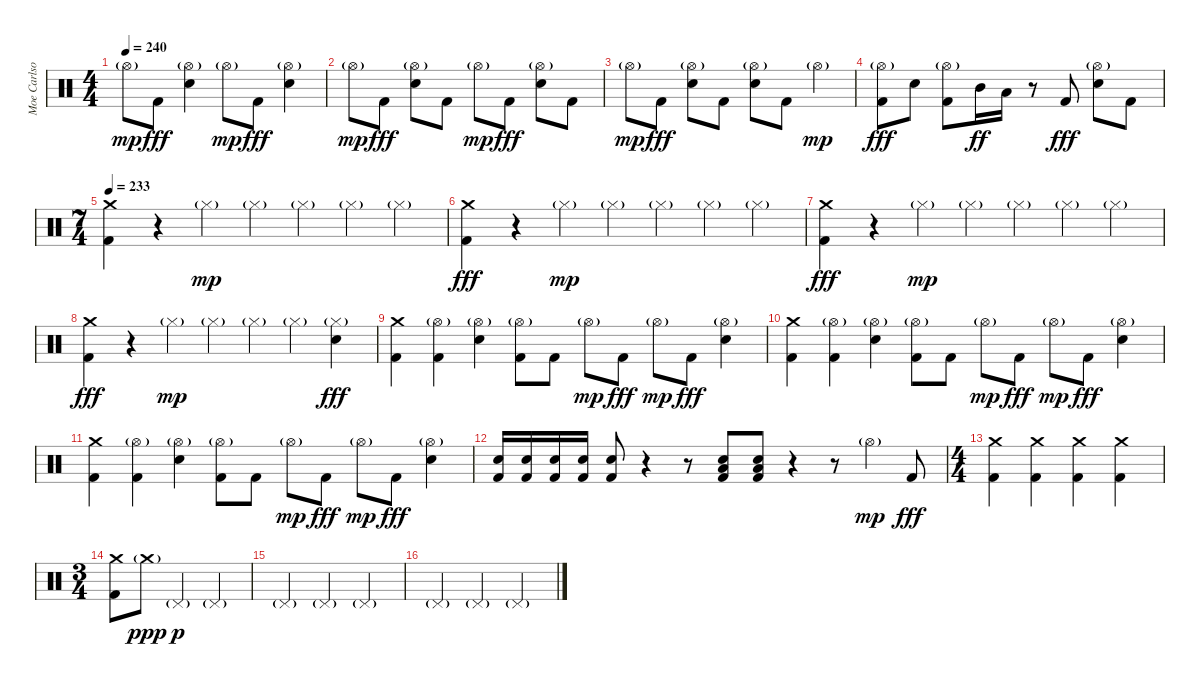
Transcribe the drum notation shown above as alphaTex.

\track ("Moe Carlson" "Moe Carlso") {instrument percussion}
\staff {score}
\articulation defaults
\ts (4 4)
\tempo 240
\clef neutral
\ks c "Hi-Hat (open)"{g}.8{dy mp} "Kick (hit) 2".8{dy fff}
("Hi-Hat (open)"{g} "Electric Snare (hit)").4 "Hi-Hat (open)"{g}.8{dy mp} "Kick (hit) 2".8{dy fff} ("Hi-Hat (open)"{g} "Electric Snare (hit)").4 |
"Hi-Hat (open)"{g}.8{dy mp} "Kick (hit) 2".8{dy fff} ("Hi-Hat (open)"{g} "Electric Snare (hit)").8 "Kick (hit) 2".8 "Hi-Hat (open)"{g}.8{dy mp} "Kick (hit) 2".8{dy fff} ("Hi-Hat (open)"{g} "Electric Snare (hit)").8 "Kick (hit) 2".8 |
"Hi-Hat (open)"{g}.8{dy mp} "Kick (hit) 2".8{dy fff} ("Hi-Hat (open)"{g} "Electric Snare (hit)").8 "Kick (hit) 2".8 ("Hi-Hat (open)"{g} "Electric Snare (hit)").8 "Kick (hit) 2".8 "Hi-Hat (open)"{g}.4{dy mp} |
("Hi-Hat (open)"{g} "Kick (hit) 2").8{dy fff} "Electric Snare (hit)".8 ("Hi-Hat (open)"{g} "Kick (hit) 2").8 "Mid Tom (hit)".16{dy ff} "Low Tom (hit)".16 r.8 "Kick (hit) 2".8{dy fff} ("Hi-Hat (open)"{g} "Electric Snare (hit)").8 "Kick (hit) 2".8 |
\ts (7 4)
\tempo 233
("Crash medium (hit)" "Kick (hit) 2").4 r.4 "Hi-Hat (closed)"{g}.4{dy mp} "Hi-Hat (closed)"{g}.4 "Hi-Hat (closed)"{g}.4 "Hi-Hat (closed)"{g}.4 "Hi-Hat (closed)"{g}.4 |
("Crash medium (hit)" "Kick (hit) 2").4{dy fff} r.4 "Hi-Hat (closed)"{g}.4{dy mp} "Hi-Hat (closed)"{g}.4 "Hi-Hat (closed)"{g}.4 "Hi-Hat (closed)"{g}.4 "Hi-Hat (closed)"{g}.4 |
("Crash medium (hit)" "Kick (hit) 2").4{dy fff} r.4 "Hi-Hat (closed)"{g}.4{dy mp} "Hi-Hat (closed)"{g}.4 "Hi-Hat (closed)"{g}.4 "Hi-Hat (closed)"{g}.4 "Hi-Hat (closed)"{g}.4 |
("Crash medium (hit)" "Kick (hit) 2").4{dy fff} r.4 "Hi-Hat (closed)"{g}.4{dy mp} "Hi-Hat (closed)"{g}.4 "Hi-Hat (closed)"{g}.4 "Hi-Hat (closed)"{g}.4 ("Hi-Hat (closed)"{g} "Electric Snare (hit)").4{dy fff} |
("Crash medium (hit)" "Kick (hit) 2").4 ("Hi-Hat (open)"{g} "Kick (hit) 2").4 ("Hi-Hat (open)"{g} "Electric Snare (hit)").4 ("Hi-Hat (open)"{g} "Kick (hit) 2").8 "Kick (hit) 2".8 "Hi-Hat (open)"{g}.8{dy mp} "Kick (hit) 2".8{dy fff} "Hi-Hat (open)"{g}.8{dy mp} "Kick (hit) 2".8{dy fff} ("Hi-Hat (open)"{g} "Electric Snare (hit)").4 |
("Crash medium (hit)" "Kick (hit) 2").4 ("Hi-Hat (open)"{g} "Kick (hit) 2").4 ("Hi-Hat (open)"{g} "Electric Snare (hit)").4 ("Hi-Hat (open)"{g} "Kick (hit) 2").8 "Kick (hit) 2".8 "Hi-Hat (open)"{g}.8{dy mp} "Kick (hit) 2".8{dy fff} "Hi-Hat (open)"{g}.8{dy mp} "Kick (hit) 2".8{dy fff} ("Hi-Hat (open)"{g} "Electric Snare (hit)").4 |
("Crash medium (hit)" "Kick (hit) 2").4 ("Hi-Hat (open)"{g} "Kick (hit) 2").4 ("Hi-Hat (open)"{g} "Electric Snare (hit)").4 ("Hi-Hat (open)"{g} "Kick (hit) 2").8 "Kick (hit) 2".8 "Hi-Hat (open)"{g}.8{dy mp} "Kick (hit) 2".8{dy fff} "Hi-Hat (open)"{g}.8{dy mp} "Kick (hit) 2".8{dy fff} ("Hi-Hat (open)"{g} "Electric Snare (hit)").4 |
("Electric Snare (hit)" "Kick (hit) 2").16 ("Electric Snare (hit)" "Kick (hit) 2").16 ("Electric Snare (hit)" "Kick (hit) 2").16 ("Electric Snare (hit)" "Kick (hit) 2").16 ("Electric Snare (hit)" "Kick (hit) 2").8 r.4 r.8 ("Electric Snare (hit)" "Low Floor Tom (hit)" "Kick (hit) 2").8 ("Electric Snare (hit)" "Low Floor Tom (hit)" "Kick (hit) 2").8 r.4 r.8 "Hi-Hat (open)"{g}.4{dy mp} "Kick (hit) 2".8{dy fff} |
\ts (4 4)
("Crash medium (hit)" "Kick (hit) 2").4 ("Crash medium (hit)" "Kick (hit) 2").4 ("Crash medium (hit)" "Kick (hit) 2").4 ("Crash medium (hit)" "Kick (hit) 2").4 |
\ts (3 4)
("Crash medium (hit)" "Kick (hit) 2").8 "Crash medium (hit)"{g}.8{dy ppp} "Pedal Hi-Hat (hit)"{g}.4{dy p} "Pedal Hi-Hat (hit)"{g}.4 |
"Pedal Hi-Hat (hit)"{g}.4 "Pedal Hi-Hat (hit)"{g}.4 "Pedal Hi-Hat (hit)"{g}.4 |
"Pedal Hi-Hat (hit)"{g}.4 "Pedal Hi-Hat (hit)"{g}.4 "Pedal Hi-Hat (hit)"{g}.4
